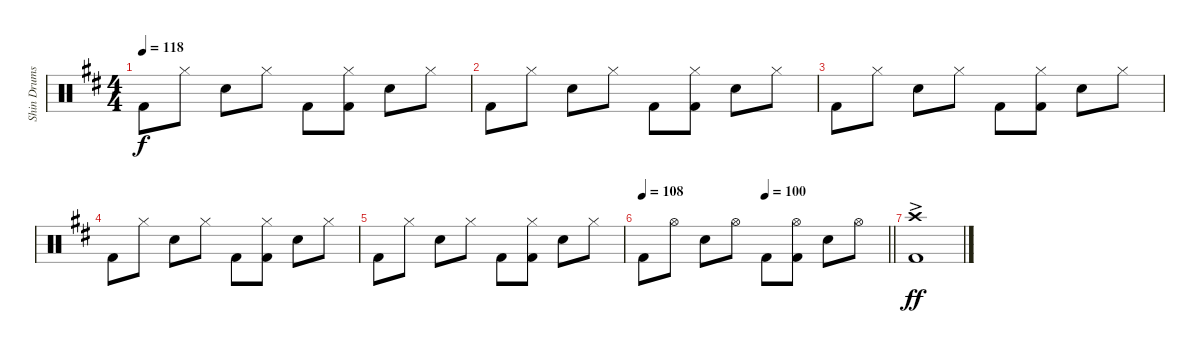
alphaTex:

\track ("Shin Drums" "Shin Drums") {instrument percussion}
\staff {score}
\articulation defaults
\ts (4 4)
\tempo 118
\clef neutral
\ks d "Kick (hit) 2".8{dy f} "Hi-Hat (closed)".8 "Snare (hit) 2".8 "Hi-Hat (closed)".8 "Kick (hit) 2".8
("Hi-Hat (closed)" "Kick (hit) 2").8 "Snare (hit) 2".8 "Hi-Hat (closed)".8 |
"Kick (hit) 2".8 "Hi-Hat (closed)".8 "Snare (hit) 2".8 "Hi-Hat (closed)".8 "Kick (hit) 2".8 ("Hi-Hat (closed)" "Kick (hit) 2").8 "Snare (hit) 2".8 "Hi-Hat (closed)".8 |
"Kick (hit) 2".8 "Hi-Hat (closed)".8 "Snare (hit) 2".8 "Hi-Hat (closed)".8 "Kick (hit) 2".8 ("Hi-Hat (closed)" "Kick (hit) 2").8 "Snare (hit) 2".8 "Hi-Hat (closed)".8 |
"Kick (hit) 2".8 "Hi-Hat (closed)".8 "Snare (hit) 2".8 "Hi-Hat (closed)".8 "Kick (hit) 2".8 ("Hi-Hat (closed)" "Kick (hit) 2").8 "Snare (hit) 2".8 "Hi-Hat (closed)".8 |
"Kick (hit) 2".8 "Hi-Hat (closed)".8 "Snare (hit) 2".8 "Hi-Hat (closed)".8 "Kick (hit) 2".8 ("Hi-Hat (closed)" "Kick (hit) 2").8 "Snare (hit) 2".8 "Hi-Hat (closed)".8 |
\tempo 108
\tempo (100 0.5)
\barLineRight lightlight "Kick (hit) 2".8 "Hi-Hat (open)".8 "Snare (hit) 2".8 "Hi-Hat (open)".8 "Kick (hit) 2".8
("Hi-Hat (open)" "Kick (hit) 2").8 "Snare (hit) 2".8 "Hi-Hat (open)".8 |
("Crash high (hit)"{ac} "Kick (hit) 2").1{dy ff}
